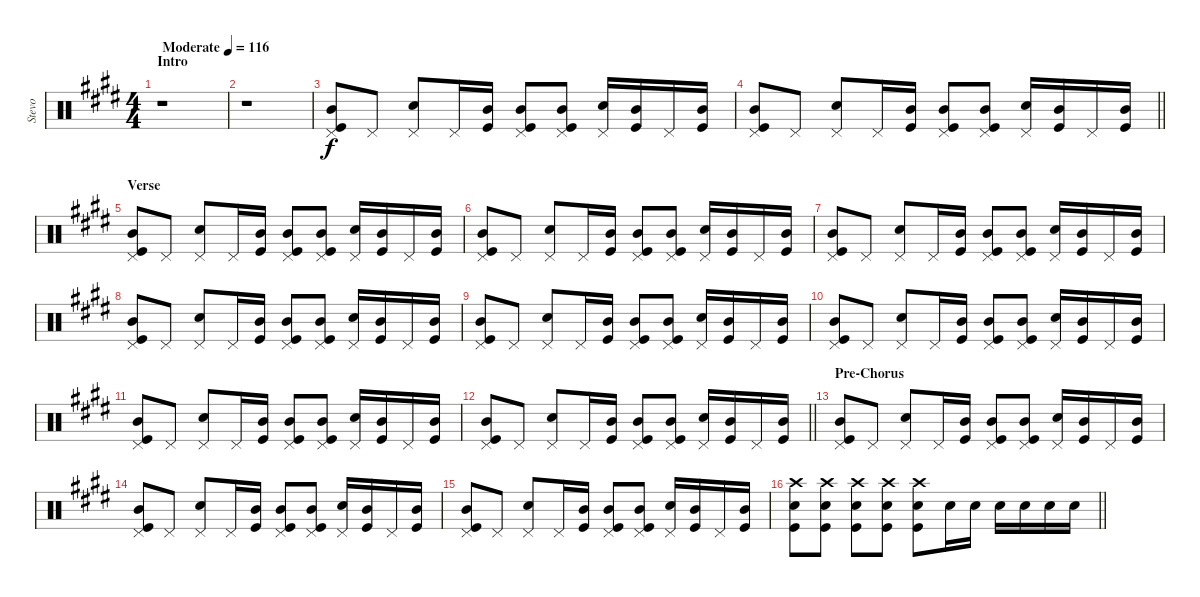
\track ("Stevo" "Stevo") {instrument percussion}
\staff {score}
\articulation defaults
\ts (4 4)
\section ("" "Intro")
\tempo (116 "Moderate")
\clef neutral
\ks e
r.1{dy f} |
r.1 |
("Kick (hit)" "Pedal Hi-Hat (hit)" "Mid Tom (hit)").8 "Pedal Hi-Hat (hit)".8 ("Electric Snare (hit)" "Pedal Hi-Hat (hit)").8 "Pedal Hi-Hat (hit)".16 ("Kick (hit)" "Mid Tom (hit)").16 ("Kick (hit)" "Pedal Hi-Hat (hit)" "Mid Tom (hit)").8 ("Kick (hit)" "Pedal Hi-Hat (hit)" "Mid Tom (hit)").8 ("Electric Snare (hit)" "Pedal Hi-Hat (hit)").16 ("Kick (hit)" "Mid Tom (hit)").16 "Pedal Hi-Hat (hit)".16 ("Kick (hit)" "Mid Tom (hit)").16 |
\barLineRight lightlight
("Kick (hit)" "Pedal Hi-Hat (hit)" "Mid Tom (hit)").8 "Pedal Hi-Hat (hit)".8 ("Electric Snare (hit)" "Pedal Hi-Hat (hit)").8 "Pedal Hi-Hat (hit)".16 ("Kick (hit)" "Mid Tom (hit)").16 ("Kick (hit)" "Pedal Hi-Hat (hit)" "Mid Tom (hit)").8 ("Kick (hit)" "Pedal Hi-Hat (hit)" "Mid Tom (hit)").8 ("Electric Snare (hit)" "Pedal Hi-Hat (hit)").16 ("Kick (hit)" "Mid Tom (hit)").16 "Pedal Hi-Hat (hit)".16 ("Kick (hit)" "Mid Tom (hit)").16 |
\section ("" "Verse")
("Kick (hit)" "Pedal Hi-Hat (hit)" "Mid Tom (hit)").8 "Pedal Hi-Hat (hit)".8 ("Electric Snare (hit)" "Pedal Hi-Hat (hit)").8 "Pedal Hi-Hat (hit)".16 ("Kick (hit)" "Mid Tom (hit)").16 ("Kick (hit)" "Pedal Hi-Hat (hit)" "Mid Tom (hit)").8 ("Kick (hit)" "Pedal Hi-Hat (hit)" "Mid Tom (hit)").8 ("Electric Snare (hit)" "Pedal Hi-Hat (hit)").16 ("Kick (hit)" "Mid Tom (hit)").16 "Pedal Hi-Hat (hit)".16 ("Kick (hit)" "Mid Tom (hit)").16 |
("Kick (hit)" "Pedal Hi-Hat (hit)" "Mid Tom (hit)").8 "Pedal Hi-Hat (hit)".8 ("Electric Snare (hit)" "Pedal Hi-Hat (hit)").8 "Pedal Hi-Hat (hit)".16 ("Kick (hit)" "Mid Tom (hit)").16 ("Kick (hit)" "Pedal Hi-Hat (hit)" "Mid Tom (hit)").8 ("Kick (hit)" "Pedal Hi-Hat (hit)" "Mid Tom (hit)").8 ("Electric Snare (hit)" "Pedal Hi-Hat (hit)").16 ("Kick (hit)" "Mid Tom (hit)").16 "Pedal Hi-Hat (hit)".16 ("Kick (hit)" "Mid Tom (hit)").16 |
("Kick (hit)" "Pedal Hi-Hat (hit)" "Mid Tom (hit)").8 "Pedal Hi-Hat (hit)".8 ("Electric Snare (hit)" "Pedal Hi-Hat (hit)").8 "Pedal Hi-Hat (hit)".16 ("Kick (hit)" "Mid Tom (hit)").16 ("Kick (hit)" "Pedal Hi-Hat (hit)" "Mid Tom (hit)").8 ("Kick (hit)" "Pedal Hi-Hat (hit)" "Mid Tom (hit)").8 ("Electric Snare (hit)" "Pedal Hi-Hat (hit)").16 ("Kick (hit)" "Mid Tom (hit)").16 "Pedal Hi-Hat (hit)".16 ("Kick (hit)" "Mid Tom (hit)").16 |
("Kick (hit)" "Pedal Hi-Hat (hit)" "Mid Tom (hit)").8 "Pedal Hi-Hat (hit)".8 ("Electric Snare (hit)" "Pedal Hi-Hat (hit)").8 "Pedal Hi-Hat (hit)".16 ("Kick (hit)" "Mid Tom (hit)").16 ("Kick (hit)" "Pedal Hi-Hat (hit)" "Mid Tom (hit)").8 ("Kick (hit)" "Pedal Hi-Hat (hit)" "Mid Tom (hit)").8 ("Electric Snare (hit)" "Pedal Hi-Hat (hit)").16 ("Kick (hit)" "Mid Tom (hit)").16 "Pedal Hi-Hat (hit)".16 ("Kick (hit)" "Mid Tom (hit)").16 |
("Kick (hit)" "Pedal Hi-Hat (hit)" "Mid Tom (hit)").8 "Pedal Hi-Hat (hit)".8 ("Electric Snare (hit)" "Pedal Hi-Hat (hit)").8 "Pedal Hi-Hat (hit)".16 ("Kick (hit)" "Mid Tom (hit)").16 ("Kick (hit)" "Pedal Hi-Hat (hit)" "Mid Tom (hit)").8 ("Kick (hit)" "Pedal Hi-Hat (hit)" "Mid Tom (hit)").8 ("Electric Snare (hit)" "Pedal Hi-Hat (hit)").16 ("Kick (hit)" "Mid Tom (hit)").16 "Pedal Hi-Hat (hit)".16 ("Kick (hit)" "Mid Tom (hit)").16 |
("Kick (hit)" "Pedal Hi-Hat (hit)" "Mid Tom (hit)").8 "Pedal Hi-Hat (hit)".8 ("Electric Snare (hit)" "Pedal Hi-Hat (hit)").8 "Pedal Hi-Hat (hit)".16 ("Kick (hit)" "Mid Tom (hit)").16 ("Kick (hit)" "Pedal Hi-Hat (hit)" "Mid Tom (hit)").8 ("Kick (hit)" "Pedal Hi-Hat (hit)" "Mid Tom (hit)").8 ("Electric Snare (hit)" "Pedal Hi-Hat (hit)").16 ("Kick (hit)" "Mid Tom (hit)").16 "Pedal Hi-Hat (hit)".16 ("Kick (hit)" "Mid Tom (hit)").16 |
("Kick (hit)" "Pedal Hi-Hat (hit)" "Mid Tom (hit)").8 "Pedal Hi-Hat (hit)".8 ("Electric Snare (hit)" "Pedal Hi-Hat (hit)").8 "Pedal Hi-Hat (hit)".16 ("Kick (hit)" "Mid Tom (hit)").16 ("Kick (hit)" "Pedal Hi-Hat (hit)" "Mid Tom (hit)").8 ("Kick (hit)" "Pedal Hi-Hat (hit)" "Mid Tom (hit)").8 ("Electric Snare (hit)" "Pedal Hi-Hat (hit)").16 ("Kick (hit)" "Mid Tom (hit)").16 "Pedal Hi-Hat (hit)".16 ("Kick (hit)" "Mid Tom (hit)").16 |
\barLineRight lightlight
("Kick (hit)" "Pedal Hi-Hat (hit)" "Mid Tom (hit)").8 "Pedal Hi-Hat (hit)".8 ("Electric Snare (hit)" "Pedal Hi-Hat (hit)").8 "Pedal Hi-Hat (hit)".16 ("Kick (hit)" "Mid Tom (hit)").16 ("Kick (hit)" "Pedal Hi-Hat (hit)" "Mid Tom (hit)").8 ("Kick (hit)" "Pedal Hi-Hat (hit)" "Mid Tom (hit)").8 ("Electric Snare (hit)" "Pedal Hi-Hat (hit)").16 ("Kick (hit)" "Mid Tom (hit)").16 "Pedal Hi-Hat (hit)".16 ("Kick (hit)" "Mid Tom (hit)").16 |
\section ("" "Pre-Chorus")
("Kick (hit)" "Pedal Hi-Hat (hit)" "Mid Tom (hit)").8 "Pedal Hi-Hat (hit)".8 ("Electric Snare (hit)" "Pedal Hi-Hat (hit)").8 "Pedal Hi-Hat (hit)".16 ("Kick (hit)" "Mid Tom (hit)").16 ("Kick (hit)" "Pedal Hi-Hat (hit)" "Mid Tom (hit)").8 ("Kick (hit)" "Pedal Hi-Hat (hit)" "Mid Tom (hit)").8 ("Electric Snare (hit)" "Pedal Hi-Hat (hit)").16 ("Kick (hit)" "Mid Tom (hit)").16 "Pedal Hi-Hat (hit)".16 ("Kick (hit)" "Mid Tom (hit)").16 |
("Kick (hit)" "Pedal Hi-Hat (hit)" "Mid Tom (hit)").8 "Pedal Hi-Hat (hit)".8 ("Electric Snare (hit)" "Pedal Hi-Hat (hit)").8 "Pedal Hi-Hat (hit)".16 ("Kick (hit)" "Mid Tom (hit)").16 ("Kick (hit)" "Pedal Hi-Hat (hit)" "Mid Tom (hit)").8 ("Kick (hit)" "Pedal Hi-Hat (hit)" "Mid Tom (hit)").8 ("Electric Snare (hit)" "Pedal Hi-Hat (hit)").16 ("Kick (hit)" "Mid Tom (hit)").16 "Pedal Hi-Hat (hit)".16 ("Kick (hit)" "Mid Tom (hit)").16 |
("Kick (hit)" "Pedal Hi-Hat (hit)" "Mid Tom (hit)").8 "Pedal Hi-Hat (hit)".8 ("Electric Snare (hit)" "Pedal Hi-Hat (hit)").8 "Pedal Hi-Hat (hit)".16 ("Kick (hit)" "Mid Tom (hit)").16 ("Kick (hit)" "Pedal Hi-Hat (hit)" "Mid Tom (hit)").8 ("Kick (hit)" "Pedal Hi-Hat (hit)" "Mid Tom (hit)").8 ("Electric Snare (hit)" "Pedal Hi-Hat (hit)").16 ("Kick (hit)" "Mid Tom (hit)").16 "Pedal Hi-Hat (hit)".16 ("Kick (hit)" "Mid Tom (hit)").16 |
\barLineRight lightlight
("Kick (hit)" "Electric Snare (hit)" "Crash high (hit)").8 ("Kick (hit)" "Electric Snare (hit)" "Crash high (hit)").8 ("Kick (hit)" "Electric Snare (hit)" "Crash high (hit)").8 ("Kick (hit)" "Electric Snare (hit)" "Crash high (hit)").8 ("Kick (hit)" "Electric Snare (hit)" "Crash high (hit)").8 "Electric Snare (hit)".16 "Electric Snare (hit)".16 "Electric Snare (hit)".16 "Electric Snare (hit)".16 "Electric Snare (hit)".16 "Electric Snare (hit)".16
